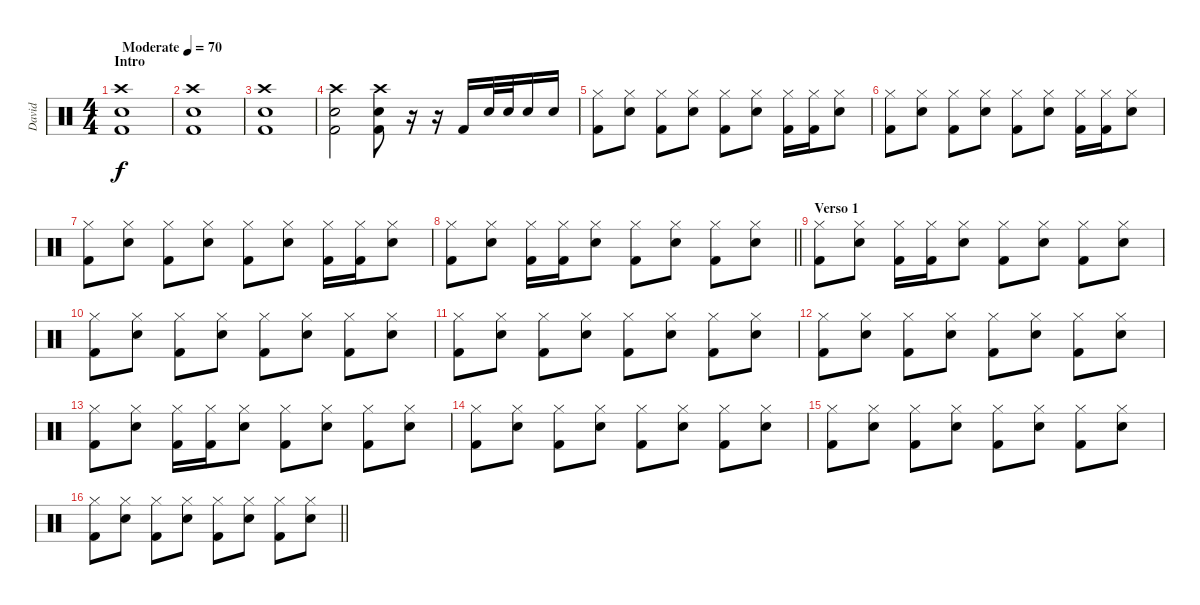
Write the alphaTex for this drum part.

\track ("David" "David") {instrument percussion}
\staff {score}
\articulation defaults
\ts (4 4)
\section ("" "Intro")
\tempo (70 "Moderate")
\clef neutral
\ks c
("Kick (hit) 2" "Snare (hit) 2" "Crash high (hit)").1{dy f} |
("Kick (hit) 2" "Snare (hit) 2" "Crash high (hit)").1 |
("Kick (hit) 2" "Snare (hit) 2" "Crash high (hit)").1 |
("Kick (hit) 2" "Snare (hit) 2" "Crash high (hit)").2 ("Kick (hit) 2" "Snare (hit) 2" "Crash high (hit)").8 r.16 r.16 "Kick (hit) 2".16 "Snare (hit) 2".32 "Snare (hit) 2".32 "Snare (hit) 2".16 "Snare (hit) 2".16 |
("Kick (hit) 2" "Hi-Hat (closed)").8 ("Snare (hit) 2" "Hi-Hat (closed)").8 ("Kick (hit) 2" "Hi-Hat (closed)").8 ("Snare (hit) 2" "Hi-Hat (closed)").8 ("Kick (hit) 2" "Hi-Hat (closed)").8 ("Snare (hit) 2" "Hi-Hat (closed)").8 ("Kick (hit) 2" "Hi-Hat (closed)").16 ("Kick (hit) 2" "Hi-Hat (closed)").16 ("Snare (hit) 2" "Hi-Hat (closed)").8 |
("Kick (hit) 2" "Hi-Hat (closed)").8 ("Snare (hit) 2" "Hi-Hat (closed)").8 ("Kick (hit) 2" "Hi-Hat (closed)").8 ("Snare (hit) 2" "Hi-Hat (closed)").8 ("Kick (hit) 2" "Hi-Hat (closed)").8 ("Snare (hit) 2" "Hi-Hat (closed)").8 ("Kick (hit) 2" "Hi-Hat (closed)").16 ("Kick (hit) 2" "Hi-Hat (closed)").16 ("Snare (hit) 2" "Hi-Hat (closed)").8 |
("Kick (hit) 2" "Hi-Hat (closed)").8 ("Snare (hit) 2" "Hi-Hat (closed)").8 ("Kick (hit) 2" "Hi-Hat (closed)").8 ("Snare (hit) 2" "Hi-Hat (closed)").8 ("Kick (hit) 2" "Hi-Hat (closed)").8 ("Snare (hit) 2" "Hi-Hat (closed)").8 ("Kick (hit) 2" "Hi-Hat (closed)").16 ("Kick (hit) 2" "Hi-Hat (closed)").16 ("Snare (hit) 2" "Hi-Hat (closed)").8 |
\barLineRight lightlight
("Kick (hit) 2" "Hi-Hat (closed)").8 ("Snare (hit) 2" "Hi-Hat (closed)").8 ("Kick (hit) 2" "Hi-Hat (closed)").16 ("Kick (hit) 2" "Hi-Hat (closed)").16 ("Snare (hit) 2" "Hi-Hat (closed)").8 ("Kick (hit) 2" "Hi-Hat (closed)").8 ("Snare (hit) 2" "Hi-Hat (closed)").8 ("Kick (hit) 2" "Hi-Hat (closed)").8 ("Snare (hit) 2" "Hi-Hat (closed)").8 |
\section ("" "Verso 1")
("Kick (hit) 2" "Hi-Hat (closed)").8 ("Snare (hit) 2" "Hi-Hat (closed)").8 ("Kick (hit) 2" "Hi-Hat (closed)").16 ("Kick (hit) 2" "Hi-Hat (closed)").16 ("Snare (hit) 2" "Hi-Hat (closed)").8 ("Kick (hit) 2" "Hi-Hat (closed)").8 ("Snare (hit) 2" "Hi-Hat (closed)").8 ("Kick (hit) 2" "Hi-Hat (closed)").8 ("Snare (hit) 2" "Hi-Hat (closed)").8 |
("Kick (hit) 2" "Hi-Hat (closed)").8 ("Snare (hit) 2" "Hi-Hat (closed)").8 ("Kick (hit) 2" "Hi-Hat (closed)").8 ("Snare (hit) 2" "Hi-Hat (closed)").8 ("Kick (hit) 2" "Hi-Hat (closed)").8 ("Snare (hit) 2" "Hi-Hat (closed)").8 ("Kick (hit) 2" "Hi-Hat (closed)").8 ("Snare (hit) 2" "Hi-Hat (closed)").8 |
("Kick (hit) 2" "Hi-Hat (closed)").8 ("Snare (hit) 2" "Hi-Hat (closed)").8 ("Kick (hit) 2" "Hi-Hat (closed)").8 ("Snare (hit) 2" "Hi-Hat (closed)").8 ("Kick (hit) 2" "Hi-Hat (closed)").8 ("Snare (hit) 2" "Hi-Hat (closed)").8 ("Kick (hit) 2" "Hi-Hat (closed)").8 ("Snare (hit) 2" "Hi-Hat (closed)").8 |
("Kick (hit) 2" "Hi-Hat (closed)").8 ("Snare (hit) 2" "Hi-Hat (closed)").8 ("Kick (hit) 2" "Hi-Hat (closed)").8 ("Snare (hit) 2" "Hi-Hat (closed)").8 ("Kick (hit) 2" "Hi-Hat (closed)").8 ("Snare (hit) 2" "Hi-Hat (closed)").8 ("Kick (hit) 2" "Hi-Hat (closed)").8 ("Snare (hit) 2" "Hi-Hat (closed)").8 |
("Kick (hit) 2" "Hi-Hat (closed)").8 ("Snare (hit) 2" "Hi-Hat (closed)").8 ("Kick (hit) 2" "Hi-Hat (closed)").16 ("Kick (hit) 2" "Hi-Hat (closed)").16 ("Snare (hit) 2" "Hi-Hat (closed)").8 ("Kick (hit) 2" "Hi-Hat (closed)").8 ("Snare (hit) 2" "Hi-Hat (closed)").8 ("Kick (hit) 2" "Hi-Hat (closed)").8 ("Snare (hit) 2" "Hi-Hat (closed)").8 |
("Kick (hit) 2" "Hi-Hat (closed)").8 ("Snare (hit) 2" "Hi-Hat (closed)").8 ("Kick (hit) 2" "Hi-Hat (closed)").8 ("Snare (hit) 2" "Hi-Hat (closed)").8 ("Kick (hit) 2" "Hi-Hat (closed)").8 ("Snare (hit) 2" "Hi-Hat (closed)").8 ("Kick (hit) 2" "Hi-Hat (closed)").8 ("Snare (hit) 2" "Hi-Hat (closed)").8 |
("Kick (hit) 2" "Hi-Hat (closed)").8 ("Snare (hit) 2" "Hi-Hat (closed)").8 ("Kick (hit) 2" "Hi-Hat (closed)").8 ("Snare (hit) 2" "Hi-Hat (closed)").8 ("Kick (hit) 2" "Hi-Hat (closed)").8 ("Snare (hit) 2" "Hi-Hat (closed)").8 ("Kick (hit) 2" "Hi-Hat (closed)").8 ("Snare (hit) 2" "Hi-Hat (closed)").8 |
\barLineRight lightlight
("Kick (hit) 2" "Hi-Hat (closed)").8 ("Snare (hit) 2" "Hi-Hat (closed)").8 ("Kick (hit) 2" "Hi-Hat (closed)").8 ("Snare (hit) 2" "Hi-Hat (closed)").8 ("Kick (hit) 2" "Hi-Hat (closed)").8 ("Snare (hit) 2" "Hi-Hat (closed)").8 ("Kick (hit) 2" "Hi-Hat (closed)").8 ("Snare (hit) 2" "Hi-Hat (closed)").8
